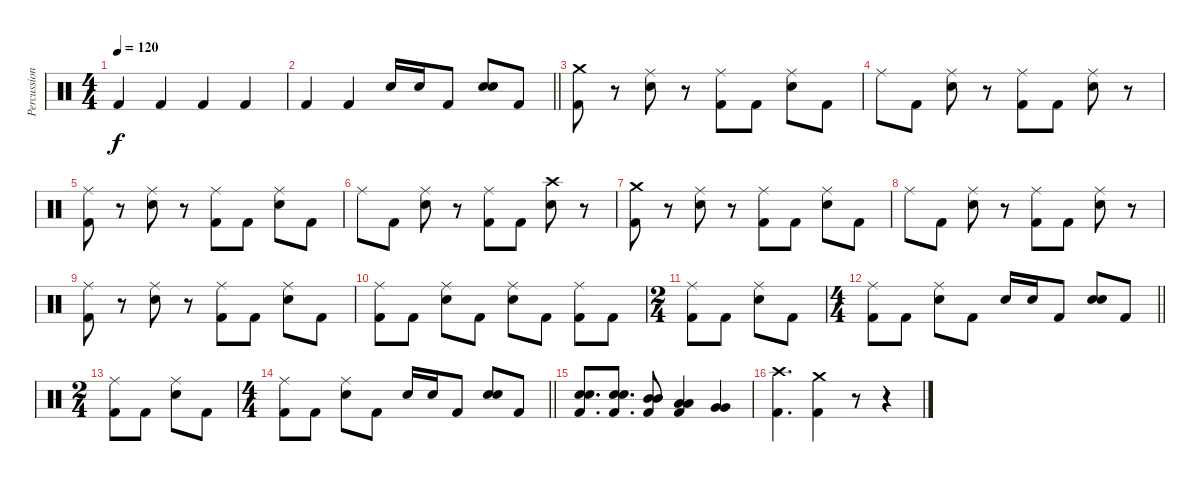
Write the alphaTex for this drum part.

\track ("Percussion" "Percussion") {instrument percussion}
\staff {score}
\articulation defaults
\ts (4 4)
\tempo 120
\clef neutral
\ks c "Kick (hit) 2".4{dy f} "Kick (hit) 2".4 "Kick (hit) 2".4 "Kick (hit) 2".4
|
\barLineRight lightlight "Kick (hit) 2".4 "Kick (hit) 2".4 "Snare (hit) 2".16 "Snare (hit) 2".16 "Kick (hit) 2".8
("Snare (hit) 2" "Snare (hit) 2").8 "Kick (hit) 2".8 |
("Crash medium (hit)" "Kick (hit) 2").8 r.8 ("Ride (middle)" "Snare (hit) 2").8 r.8 ("Ride (middle)" "Kick (hit) 2").8 "Kick (hit) 2".8 ("Ride (middle)" "Snare (hit) 2").8 "Kick (hit) 2".8 |
"Ride (middle)".8 "Kick (hit) 2".8 ("Ride (middle)" "Snare (hit) 2").8 r.8 ("Ride (middle)" "Kick (hit) 2").8 "Kick (hit) 2".8 ("Ride (middle)" "Snare (hit) 2").8 r.8 |
("Ride (middle)" "Kick (hit) 2").8 r.8 ("Ride (middle)" "Snare (hit) 2").8 r.8 ("Ride (middle)" "Kick (hit) 2").8 "Kick (hit) 2".8 ("Ride (middle)" "Snare (hit) 2").8 "Kick (hit) 2".8 |
"Ride (middle)".8 "Kick (hit) 2".8 ("Ride (middle)" "Snare (hit) 2").8 r.8 ("Ride (middle)" "Kick (hit) 2").8 "Kick (hit) 2".8 ("Crash high (hit)" "Snare (hit) 2").8 r.8 |
("Crash medium (hit)" "Kick (hit) 2").8 r.8 ("Ride (middle)" "Snare (hit) 2").8 r.8 ("Ride (middle)" "Kick (hit) 2").8 "Kick (hit) 2".8 ("Ride (middle)" "Snare (hit) 2").8 "Kick (hit) 2".8 |
"Ride (middle)".8 "Kick (hit) 2".8 ("Ride (middle)" "Snare (hit) 2").8 r.8 ("Ride (middle)" "Kick (hit) 2").8 "Kick (hit) 2".8 ("Ride (middle)" "Snare (hit) 2").8 r.8 |
("Ride (middle)" "Kick (hit) 2").8 r.8 ("Ride (middle)" "Snare (hit) 2").8 r.8 ("Ride (middle)" "Kick (hit) 2").8 "Kick (hit) 2".8 ("Ride (middle)" "Snare (hit) 2").8 "Kick (hit) 2".8 |
("Ride (middle)" "Kick (hit) 2").8 "Kick (hit) 2".8 ("Ride (middle)" "Snare (hit) 2").8 "Kick (hit) 2".8 ("Ride (middle)" "Snare (hit) 2").8 "Kick (hit) 2".8 ("Ride (middle)" "Kick (hit) 2").8 "Kick (hit) 2".8 |
\ts (2 4)
("Ride (middle)" "Kick (hit) 2").8 "Kick (hit) 2".8 ("Ride (middle)" "Snare (hit) 2").8 "Kick (hit) 2".8 |
\ts (4 4)
\barLineRight lightlight
("Ride (middle)" "Kick (hit) 2").8 "Kick (hit) 2".8 ("Ride (middle)" "Snare (hit) 2").8 "Kick (hit) 2".8 "Snare (hit) 2".16 "Snare (hit) 2".16 "Kick (hit) 2".8 ("Snare (hit) 2" "Snare (hit) 2").8 "Kick (hit) 2".8 |
\ts (2 4)
("Ride (middle)" "Kick (hit) 2").8 "Kick (hit) 2".8 ("Ride (middle)" "Snare (hit) 2").8 "Kick (hit) 2".8 |
\ts (4 4)
\barLineRight lightlight
("Ride (middle)" "Kick (hit) 2").8 "Kick (hit) 2".8 ("Ride (middle)" "Snare (hit) 2").8 "Kick (hit) 2".8 "Snare (hit) 2".16 "Snare (hit) 2".16 "Kick (hit) 2".8 ("Snare (hit) 2" "Snare (hit) 2").8 "Kick (hit) 2".8 |
("Snare (hit) 2" "Snare (hit) 2" "Kick (hit) 2").8{d} ("Snare (hit) 2" "Snare (hit) 2" "Kick (hit) 2").8{d} ("Mid Tom (hit)" "Mid Tom (hit)" "Kick (hit) 2").8 ("Low Tom (hit)" "Low Tom (hit)" "Kick (hit) 2").4 ("Very Low Tom (hit)" "Very Low Tom (hit)").4 |
("Crash high (hit)" "Kick (hit) 2").4{d} ("Crash medium (hit)" "Kick (hit) 2").4 r.8 r.4
